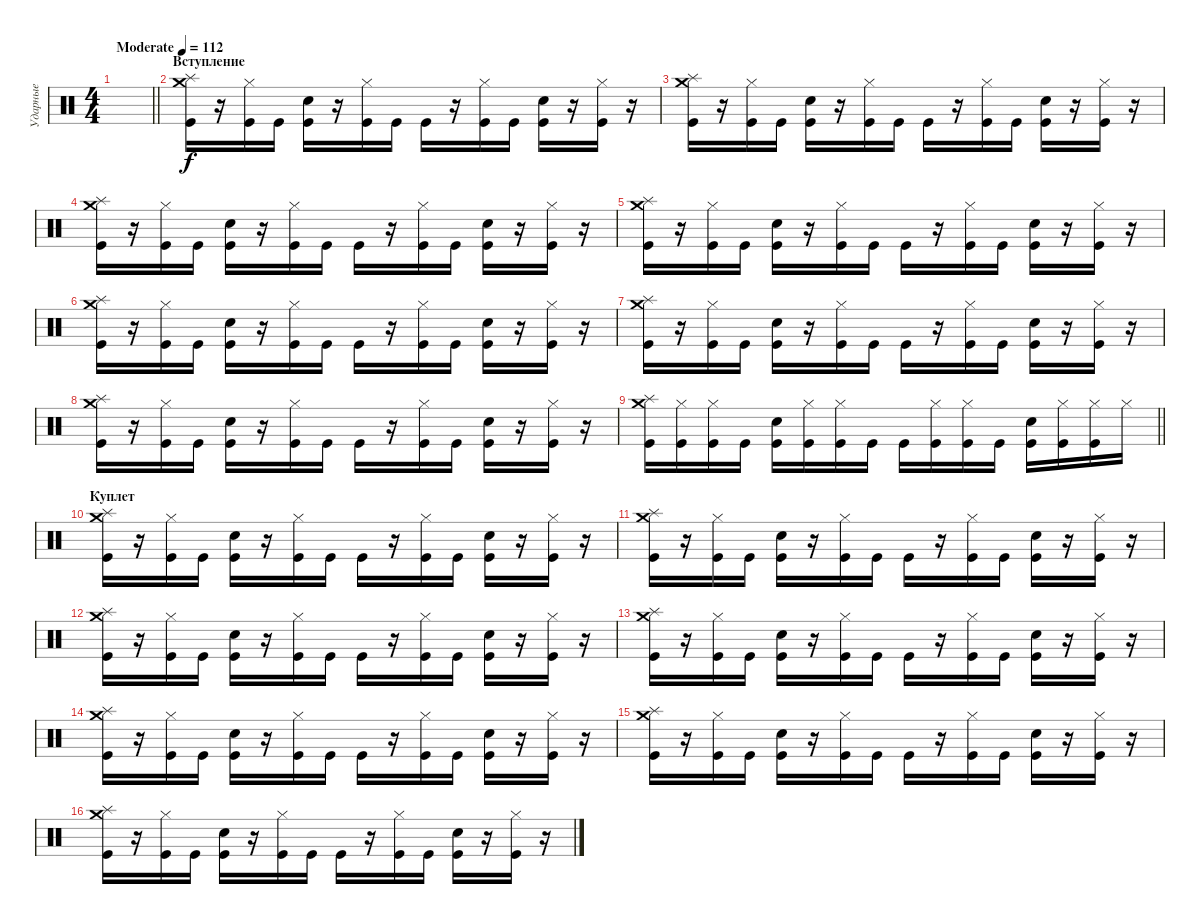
\track ("Ударные" "Ударные") {instrument percussion}
\staff {score}
\articulation defaults
\ts (4 4)
\tempo (112 "Moderate")
\clef neutral
\barLineRight lightlight
\ks c
|
\section ("" "Вступление")
("Splash (hit)" "Crash medium (hit)" "Kick (hit)").16 r.16 ("Hi-Hat (closed)" "Kick (hit)").16 "Kick (hit)".16 ("Snare (hit) 2" "Kick (hit)").16 r.16 ("Hi-Hat (closed)" "Kick (hit)").16 "Kick (hit)".16 "Kick (hit)".16 r.16 ("Hi-Hat (closed)" "Kick (hit)").16 "Kick (hit)".16 ("Snare (hit) 2" "Kick (hit)").16 r.16 ("Hi-Hat (closed)" "Kick (hit)").16 r.16 |
("Splash (hit)" "Crash medium (hit)" "Kick (hit)").16 r.16 ("Hi-Hat (closed)" "Kick (hit)").16 "Kick (hit)".16 ("Snare (hit) 2" "Kick (hit)").16 r.16 ("Hi-Hat (closed)" "Kick (hit)").16 "Kick (hit)".16 "Kick (hit)".16 r.16 ("Hi-Hat (closed)" "Kick (hit)").16 "Kick (hit)".16 ("Snare (hit) 2" "Kick (hit)").16 r.16 ("Hi-Hat (closed)" "Kick (hit)").16 r.16 |
("Splash (hit)" "Crash medium (hit)" "Kick (hit)").16 r.16 ("Hi-Hat (closed)" "Kick (hit)").16 "Kick (hit)".16 ("Snare (hit) 2" "Kick (hit)").16 r.16 ("Hi-Hat (closed)" "Kick (hit)").16 "Kick (hit)".16 "Kick (hit)".16 r.16 ("Hi-Hat (closed)" "Kick (hit)").16 "Kick (hit)".16 ("Snare (hit) 2" "Kick (hit)").16 r.16 ("Hi-Hat (closed)" "Kick (hit)").16 r.16 |
("Splash (hit)" "Crash medium (hit)" "Kick (hit)").16 r.16 ("Hi-Hat (closed)" "Kick (hit)").16 "Kick (hit)".16 ("Snare (hit) 2" "Kick (hit)").16 r.16 ("Hi-Hat (closed)" "Kick (hit)").16 "Kick (hit)".16 "Kick (hit)".16 r.16 ("Hi-Hat (closed)" "Kick (hit)").16 "Kick (hit)".16 ("Snare (hit) 2" "Kick (hit)").16 r.16 ("Hi-Hat (closed)" "Kick (hit)").16 r.16 |
("Splash (hit)" "Crash medium (hit)" "Kick (hit)").16 r.16 ("Hi-Hat (closed)" "Kick (hit)").16 "Kick (hit)".16 ("Snare (hit) 2" "Kick (hit)").16 r.16 ("Hi-Hat (closed)" "Kick (hit)").16 "Kick (hit)".16 "Kick (hit)".16 r.16 ("Hi-Hat (closed)" "Kick (hit)").16 "Kick (hit)".16 ("Snare (hit) 2" "Kick (hit)").16 r.16 ("Hi-Hat (closed)" "Kick (hit)").16 r.16 |
("Splash (hit)" "Crash medium (hit)" "Kick (hit)").16 r.16 ("Hi-Hat (closed)" "Kick (hit)").16 "Kick (hit)".16 ("Snare (hit) 2" "Kick (hit)").16 r.16 ("Hi-Hat (closed)" "Kick (hit)").16 "Kick (hit)".16 "Kick (hit)".16 r.16 ("Hi-Hat (closed)" "Kick (hit)").16 "Kick (hit)".16 ("Snare (hit) 2" "Kick (hit)").16 r.16 ("Hi-Hat (closed)" "Kick (hit)").16 r.16 |
("Splash (hit)" "Crash medium (hit)" "Kick (hit)").16 r.16 ("Hi-Hat (closed)" "Kick (hit)").16 "Kick (hit)".16 ("Snare (hit) 2" "Kick (hit)").16 r.16 ("Hi-Hat (closed)" "Kick (hit)").16 "Kick (hit)".16 "Kick (hit)".16 r.16 ("Hi-Hat (closed)" "Kick (hit)").16 "Kick (hit)".16 ("Snare (hit) 2" "Kick (hit)").16 r.16 ("Hi-Hat (closed)" "Kick (hit)").16 r.16 |
\barLineRight lightlight
("Splash (hit)" "Crash medium (hit)" "Kick (hit)").16 ("Hi-Hat (closed)" "Kick (hit)").16 ("Hi-Hat (closed)" "Kick (hit)").16 "Kick (hit)".16 ("Snare (hit) 2" "Kick (hit)").16 ("Hi-Hat (closed)" "Kick (hit)").16 ("Hi-Hat (closed)" "Kick (hit)").16 "Kick (hit)".16 "Kick (hit)".16 ("Hi-Hat (closed)" "Kick (hit)").16 ("Hi-Hat (closed)" "Kick (hit)").16 "Kick (hit)".16 ("Snare (hit) 2" "Kick (hit)").16 ("Hi-Hat (closed)" "Kick (hit)").16 ("Hi-Hat (closed)" "Kick (hit)").16 "Hi-Hat (closed)".16 |
\section ("" "Куплет")
("Splash (hit)" "Crash medium (hit)" "Kick (hit)").16 r.16 ("Hi-Hat (closed)" "Kick (hit)").16 "Kick (hit)".16 ("Snare (hit) 2" "Kick (hit)").16 r.16 ("Hi-Hat (closed)" "Kick (hit)").16 "Kick (hit)".16 "Kick (hit)".16 r.16 ("Hi-Hat (closed)" "Kick (hit)").16 "Kick (hit)".16 ("Snare (hit) 2" "Kick (hit)").16 r.16 ("Hi-Hat (closed)" "Kick (hit)").16 r.16 |
("Splash (hit)" "Crash medium (hit)" "Kick (hit)").16 r.16 ("Hi-Hat (closed)" "Kick (hit)").16 "Kick (hit)".16 ("Snare (hit) 2" "Kick (hit)").16 r.16 ("Hi-Hat (closed)" "Kick (hit)").16 "Kick (hit)".16 "Kick (hit)".16 r.16 ("Hi-Hat (closed)" "Kick (hit)").16 "Kick (hit)".16 ("Snare (hit) 2" "Kick (hit)").16 r.16 ("Hi-Hat (closed)" "Kick (hit)").16 r.16 |
("Splash (hit)" "Crash medium (hit)" "Kick (hit)").16 r.16 ("Hi-Hat (closed)" "Kick (hit)").16 "Kick (hit)".16 ("Snare (hit) 2" "Kick (hit)").16 r.16 ("Hi-Hat (closed)" "Kick (hit)").16 "Kick (hit)".16 "Kick (hit)".16 r.16 ("Hi-Hat (closed)" "Kick (hit)").16 "Kick (hit)".16 ("Snare (hit) 2" "Kick (hit)").16 r.16 ("Hi-Hat (closed)" "Kick (hit)").16 r.16 |
("Splash (hit)" "Crash medium (hit)" "Kick (hit)").16 r.16 ("Hi-Hat (closed)" "Kick (hit)").16 "Kick (hit)".16 ("Snare (hit) 2" "Kick (hit)").16 r.16 ("Hi-Hat (closed)" "Kick (hit)").16 "Kick (hit)".16 "Kick (hit)".16 r.16 ("Hi-Hat (closed)" "Kick (hit)").16 "Kick (hit)".16 ("Snare (hit) 2" "Kick (hit)").16 r.16 ("Hi-Hat (closed)" "Kick (hit)").16 r.16 |
("Splash (hit)" "Crash medium (hit)" "Kick (hit)").16 r.16 ("Hi-Hat (closed)" "Kick (hit)").16 "Kick (hit)".16 ("Snare (hit) 2" "Kick (hit)").16 r.16 ("Hi-Hat (closed)" "Kick (hit)").16 "Kick (hit)".16 "Kick (hit)".16 r.16 ("Hi-Hat (closed)" "Kick (hit)").16 "Kick (hit)".16 ("Snare (hit) 2" "Kick (hit)").16 r.16 ("Hi-Hat (closed)" "Kick (hit)").16 r.16 |
("Splash (hit)" "Crash medium (hit)" "Kick (hit)").16 r.16 ("Hi-Hat (closed)" "Kick (hit)").16 "Kick (hit)".16 ("Snare (hit) 2" "Kick (hit)").16 r.16 ("Hi-Hat (closed)" "Kick (hit)").16 "Kick (hit)".16 "Kick (hit)".16 r.16 ("Hi-Hat (closed)" "Kick (hit)").16 "Kick (hit)".16 ("Snare (hit) 2" "Kick (hit)").16 r.16 ("Hi-Hat (closed)" "Kick (hit)").16 r.16 |
("Splash (hit)" "Crash medium (hit)" "Kick (hit)").16 r.16 ("Hi-Hat (closed)" "Kick (hit)").16 "Kick (hit)".16 ("Snare (hit) 2" "Kick (hit)").16 r.16 ("Hi-Hat (closed)" "Kick (hit)").16 "Kick (hit)".16 "Kick (hit)".16 r.16 ("Hi-Hat (closed)" "Kick (hit)").16 "Kick (hit)".16 ("Snare (hit) 2" "Kick (hit)").16 r.16 ("Hi-Hat (closed)" "Kick (hit)").16 r.16
